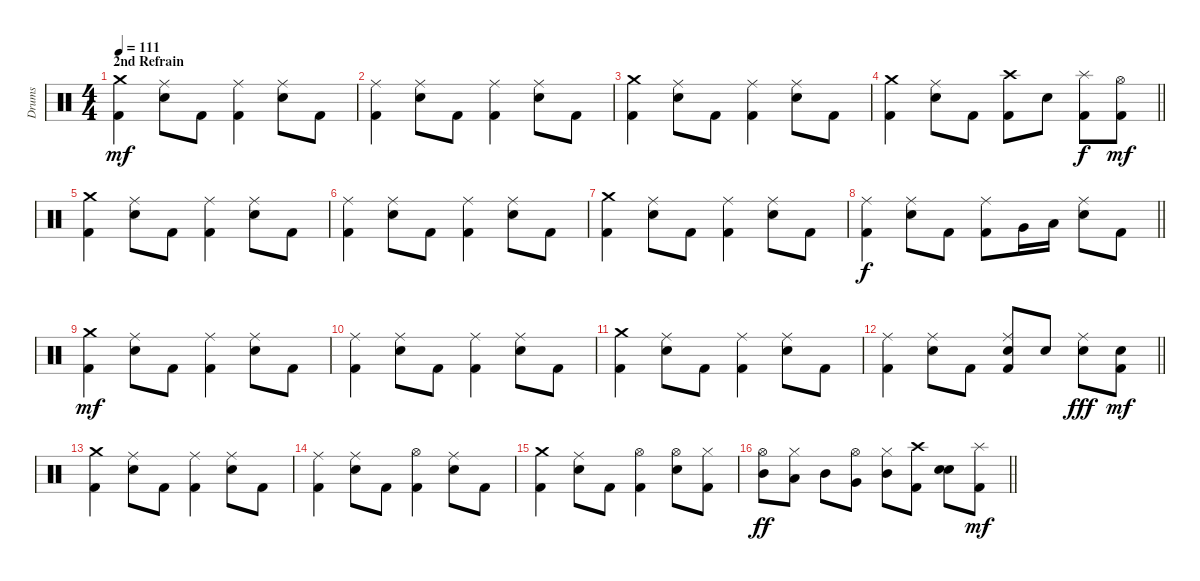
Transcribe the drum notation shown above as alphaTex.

\track ("Drums" "Drums") {instrument percussion}
\staff {score}
\articulation defaults
\ts (4 4)
\section ("" "2nd Refrain")
\tempo 111
\clef neutral
\ks c
("Crash medium (hit)" "Kick (hit) 2").4{dy mf} ("Ride (middle)" "Electric Snare (hit)").8 "Kick (hit) 2".8 ("Ride (middle)" "Kick (hit) 2").4 ("Ride (middle)" "Electric Snare (hit)").8 "Kick (hit) 2".8 |
("Ride (middle)" "Kick (hit) 2").4 ("Ride (middle)" "Electric Snare (hit)").8 "Kick (hit) 2".8 ("Ride (middle)" "Kick (hit) 2").4 ("Ride (middle)" "Electric Snare (hit)").8 "Kick (hit) 2".8 |
("Crash medium (hit)" "Kick (hit) 2").4 ("Ride (middle)" "Electric Snare (hit)").8 "Kick (hit) 2".8 ("Ride (middle)" "Kick (hit) 2").4 ("Ride (middle)" "Electric Snare (hit)").8 "Kick (hit) 2".8 |
\barLineRight lightlight
("Crash medium (hit)" "Kick (hit) 2").4 ("Ride (middle)" "Electric Snare (hit)").8 "Kick (hit) 2".8 ("Crash high (hit)" "Kick (hit) 2").8 "Electric Snare (hit)".8 ("Splash (hit)" "Kick (hit) 2").8{dy f} ("Hi-Hat (open)" "Kick (hit) 2").8{dy mf} |
("Crash medium (hit)" "Kick (hit) 2").4 ("Ride (middle)" "Electric Snare (hit)").8 "Kick (hit) 2".8 ("Ride (middle)" "Kick (hit) 2").4 ("Ride (middle)" "Electric Snare (hit)").8 "Kick (hit) 2".8 |
("Ride (middle)" "Kick (hit) 2").4 ("Ride (middle)" "Electric Snare (hit)").8 "Kick (hit) 2".8 ("Ride (middle)" "Kick (hit) 2").4 ("Ride (middle)" "Electric Snare (hit)").8 "Kick (hit) 2".8 |
("Crash medium (hit)" "Kick (hit) 2").4 ("Ride (middle)" "Electric Snare (hit)").8 "Kick (hit) 2".8 ("Ride (middle)" "Kick (hit) 2").4 ("Ride (middle)" "Electric Snare (hit)").8 "Kick (hit) 2".8 |
\barLineRight lightlight
("Ride (middle)" "Kick (hit) 2").4{dy f} ("Ride (middle)" "Electric Snare (hit)").8 "Kick (hit) 2".8 ("Ride (middle)" "Kick (hit) 2").8 "Very Low Tom (hit)".16 "Low Tom (hit)".16 ("Ride (middle)" "Electric Snare (hit)").8 "Kick (hit) 2".8 |
("Crash medium (hit)" "Kick (hit) 2").4{dy mf} ("Ride (middle)" "Electric Snare (hit)").8 "Kick (hit) 2".8 ("Ride (middle)" "Kick (hit) 2").4 ("Ride (middle)" "Electric Snare (hit)").8 "Kick (hit) 2".8 |
("Ride (middle)" "Kick (hit) 2").4 ("Ride (middle)" "Electric Snare (hit)").8 "Kick (hit) 2".8 ("Ride (middle)" "Kick (hit) 2").4 ("Ride (middle)" "Electric Snare (hit)").8 "Kick (hit) 2".8 |
("Crash medium (hit)" "Kick (hit) 2").4 ("Ride (middle)" "Electric Snare (hit)").8 "Kick (hit) 2".8 ("Ride (middle)" "Kick (hit) 2").4 ("Ride (middle)" "Electric Snare (hit)").8 "Kick (hit) 2".8 |
\barLineRight lightlight
("Ride (middle)" "Kick (hit) 2").4 ("Ride (middle)" "Electric Snare (hit)").8 "Kick (hit) 2".8 ("Ride (middle)" "Electric Snare (hit)" "Kick (hit) 2").8 "Electric Snare (hit)".8 ("Ride (middle)" "Electric Snare (hit)").8{dy fff} ("Electric Snare (hit)" "Kick (hit) 2").8{dy mf} |
("Crash medium (hit)" "Kick (hit) 2").4 ("Ride (middle)" "Electric Snare (hit)").8 "Kick (hit) 2".8 ("Ride (middle)" "Kick (hit) 2").4 ("Ride (middle)" "Electric Snare (hit)").8 "Kick (hit) 2".8 |
("Ride (middle)" "Kick (hit) 2").4 ("Ride (middle)" "Electric Snare (hit)").8 "Kick (hit) 2".8 ("Hi-Hat (open)" "Kick (hit) 2").4 ("Ride (middle)" "Electric Snare (hit)").8 "Kick (hit) 2".8 |
("Crash medium (hit)" "Kick (hit) 2").4 ("Ride (middle)" "Electric Snare (hit)").8 "Kick (hit) 2".8 ("Hi-Hat (open)" "Kick (hit) 2").4 ("Hi-Hat (open)" "Electric Snare (hit)").8 ("Hi-Hat (closed)" "Kick (hit) 2").8 |
\barLineRight lightlight
("Hi-Hat (open)" "Mid Tom (hit)").8{dy ff} ("Hi-Hat (closed)" "Low Tom (hit)").8 "Mid Tom (hit)".8 ("Hi-Hat (open)" "Very Low Tom (hit)").8 ("Hi-Hat (closed)" "Mid Tom (hit)").8 ("Crash high (hit)" "Kick (hit) 2").8 ("Electric Snare (hit)" "Electric Snare (hit)").8{bd 60} ("Splash (hit)" "Kick (hit) 2").8{dy mf}
